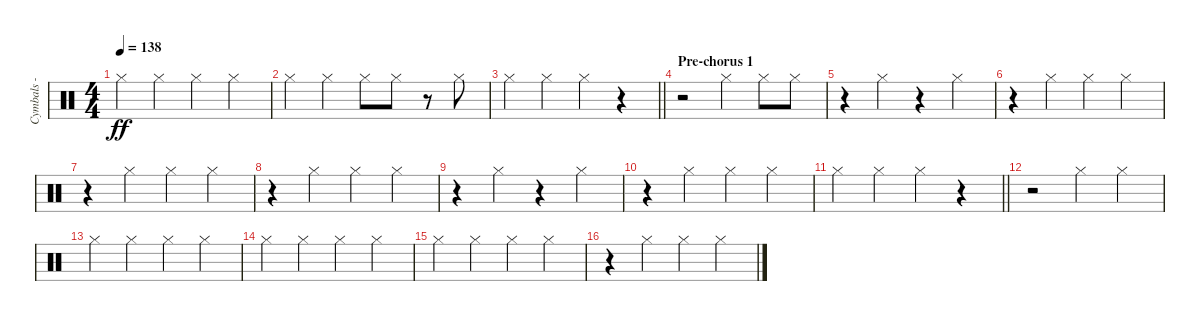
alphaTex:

\track ("Cymbals - hi-hat" "Cymbals - ") {instrument percussion}
\staff {score}
\articulation defaults
\ts (4 4)
\tempo 138
\clef neutral
\ks c "Hi-Hat (closed)".4{dy ff} "Hi-Hat (closed)".4 "Hi-Hat (closed)".4 "Hi-Hat (closed)".4
|
"Hi-Hat (closed)".4 "Hi-Hat (closed)".4 "Hi-Hat (closed)".8 "Hi-Hat (closed)".8 r.8 "Hi-Hat (closed)".8 |
\barLineRight lightlight "Hi-Hat (closed)".4 "Hi-Hat (closed)".4 "Hi-Hat (closed)".4
r.4 |
\section ("" "Pre-chorus 1")
r.2 "Hi-Hat (closed)".4 "Hi-Hat (closed)".8 "Hi-Hat (closed)".8 |
r.4 "Hi-Hat (closed)".4 r.4 "Hi-Hat (closed)".4 |
r.4 "Hi-Hat (closed)".4 "Hi-Hat (closed)".4 "Hi-Hat (closed)".4 |
r.4 "Hi-Hat (closed)".4 "Hi-Hat (closed)".4 "Hi-Hat (closed)".4 |
r.4 "Hi-Hat (closed)".4 "Hi-Hat (closed)".4 "Hi-Hat (closed)".4 |
r.4 "Hi-Hat (closed)".4 r.4 "Hi-Hat (closed)".4 |
r.4 "Hi-Hat (closed)".4 "Hi-Hat (closed)".4 "Hi-Hat (closed)".4 |
\barLineRight lightlight "Hi-Hat (closed)".4 "Hi-Hat (closed)".4 "Hi-Hat (closed)".4
r.4 |
r.2 "Hi-Hat (closed)".4 "Hi-Hat (closed)".4 |
"Hi-Hat (closed)".4 "Hi-Hat (closed)".4 "Hi-Hat (closed)".4 "Hi-Hat (closed)".4 |
"Hi-Hat (closed)".4 "Hi-Hat (closed)".4 "Hi-Hat (closed)".4 "Hi-Hat (closed)".4 |
"Hi-Hat (closed)".4 "Hi-Hat (closed)".4 "Hi-Hat (closed)".4 "Hi-Hat (closed)".4 |
r.4 "Hi-Hat (closed)".4 "Hi-Hat (closed)".4 "Hi-Hat (closed)".4
